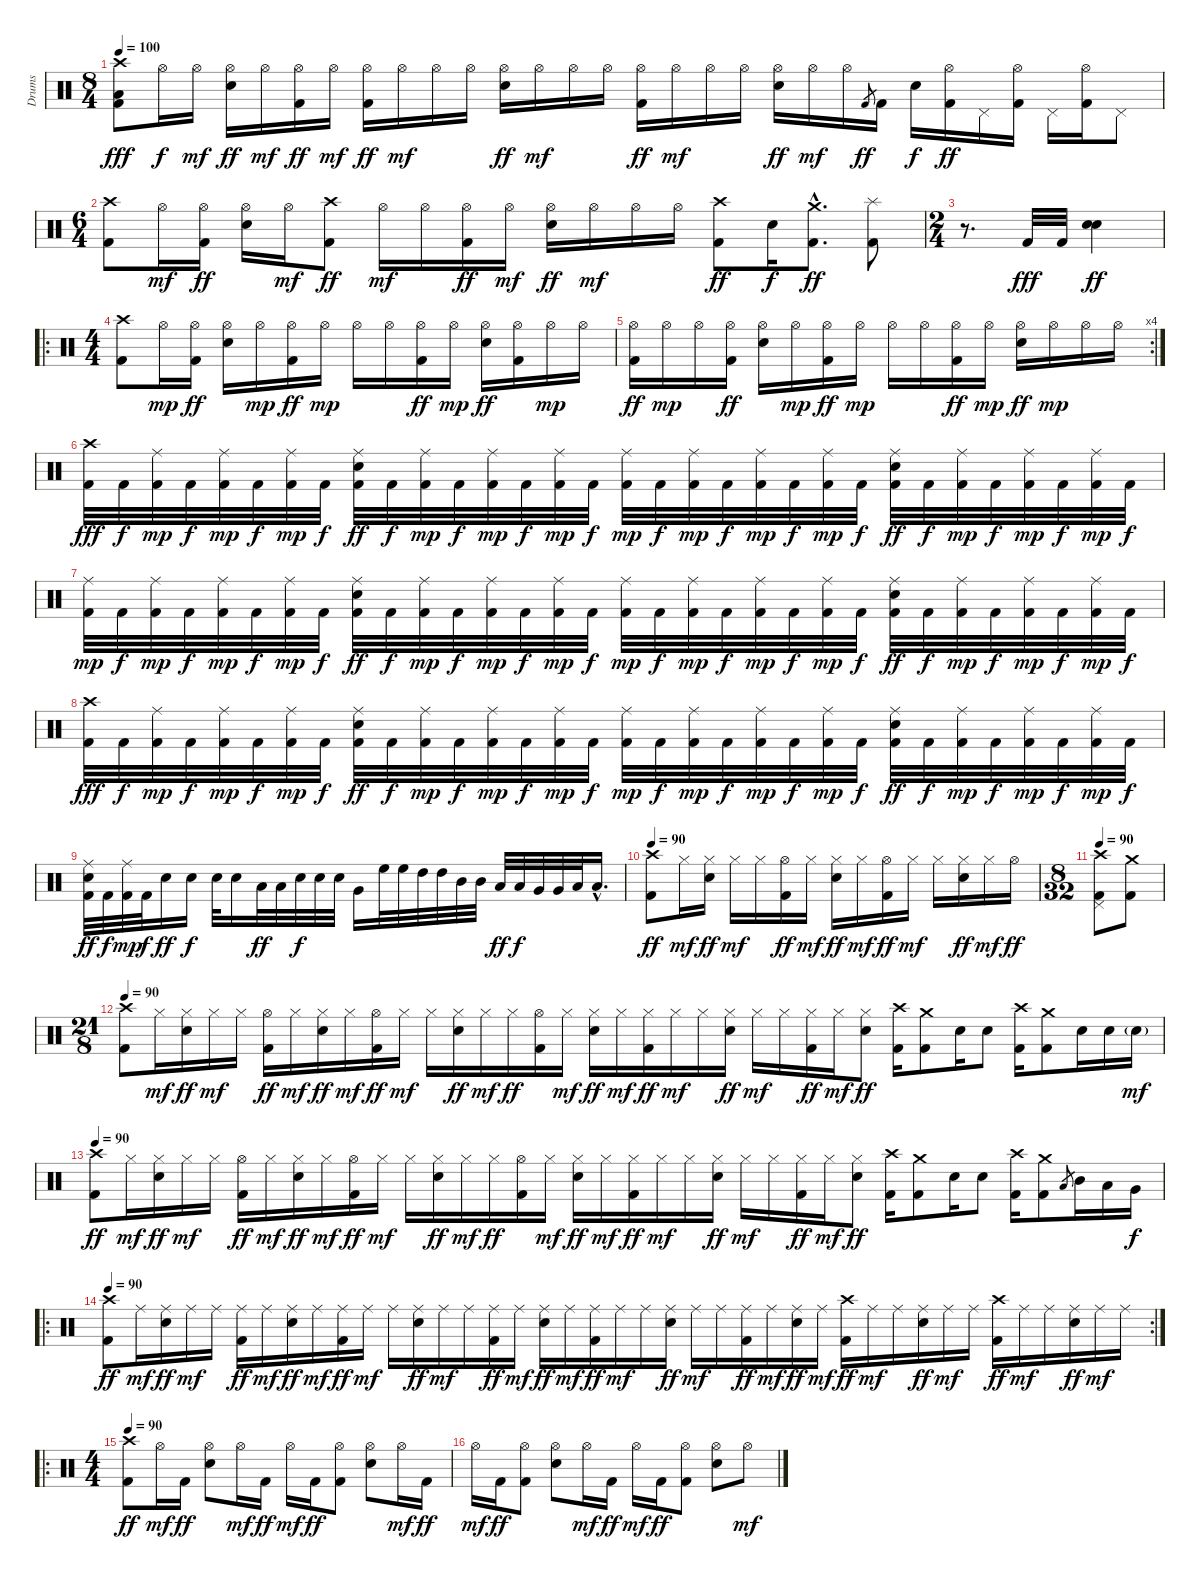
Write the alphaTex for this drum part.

\track ("Drums" "Drums") {instrument percussion}
\staff {score}
\articulation defaults
\ts (8 4)
\tempo 100
\clef neutral
\ks c
("Crash high (hit)" "Low Floor Tom (hit)" "Kick (hit) 2").8{dy fff} "Hi-Hat (open)".16{dy f} "Hi-Hat (open)".16{dy mf} ("Hi-Hat (open)" "Electric Snare (hit)").16{dy ff} "Hi-Hat (open)".16{dy mf} ("Hi-Hat (open)" "Kick (hit) 2").16{dy ff} "Hi-Hat (open)".16{dy mf} ("Hi-Hat (open)" "Kick (hit) 2").16{dy ff} "Hi-Hat (open)".16{dy mf} "Hi-Hat (open)".16 "Hi-Hat (open)".16 ("Hi-Hat (open)" "Electric Snare (hit)").16{dy ff} "Hi-Hat (open)".16{dy mf} "Hi-Hat (open)".16 "Hi-Hat (open)".16 ("Hi-Hat (open)" "Kick (hit) 2").16{dy ff} "Hi-Hat (open)".16{dy mf} "Hi-Hat (open)".16 "Hi-Hat (open)".16 ("Hi-Hat (open)" "Electric Snare (hit)").16{dy ff} "Hi-Hat (open)".16{dy mf} "Hi-Hat (open)".16 "Kick (hit) 2".8{gr dy ff} "Kick (hit) 2".16 "Electric Snare (hit)".16{dy f} ("Hi-Hat (open)" "Kick (hit) 2").16{dy ff} "Pedal Hi-Hat (hit)".16 ("Hi-Hat (open)" "Kick (hit) 2").16 "Pedal Hi-Hat (hit)".16 ("Hi-Hat (open)" "Kick (hit) 2").16 "Pedal Hi-Hat (hit)".8 |
\ts (6 4)
("Crash high (hit)" "Kick (hit) 2").8 "Hi-Hat (open)".16{dy mf} ("Hi-Hat (open)" "Kick (hit) 2").16{dy ff} ("Hi-Hat (open)" "Electric Snare (hit)").16 "Hi-Hat (open)".16{dy mf} ("Crash high (hit)" "Kick (hit) 2").8{dy ff} "Hi-Hat (open)".16{dy mf} "Hi-Hat (open)".16 ("Hi-Hat (open)" "Kick (hit) 2").16{dy ff} "Hi-Hat (open)".16{dy mf} ("Hi-Hat (open)" "Electric Snare (hit)").16{dy ff} "Hi-Hat (open)".16{dy mf} "Hi-Hat (open)".16 "Hi-Hat (open)".16 ("Crash high (hit)" "Kick (hit) 2").8{dy ff} "Electric Snare (hit)".16{dy f} ("Crash medium (hit)"{hac} "Kick (hit) 2"{hac}).8{d dy ff} ("Splash (hit)" "Kick (hit) 2").8 |
\ts (2 4)
r.8{d} "Kick (hit) 2".32{dy fff} "Kick (hit) 2".32 ("Electric Snare (hit)" "Metronome (bell)").4{dy ff} |
\ro
\ts (4 4)
("Crash high (hit)" "Kick (hit) 2").8 "Hi-Hat (open)".16{dy mp} ("Hi-Hat (open)" "Kick (hit) 2").16{dy ff} ("Hi-Hat (open)" "Electric Snare (hit)").16 "Hi-Hat (open)".16{dy mp} ("Hi-Hat (open)" "Kick (hit) 2").16{dy ff} "Hi-Hat (open)".16{dy mp} "Hi-Hat (open)".16 "Hi-Hat (open)".16 ("Hi-Hat (open)" "Kick (hit) 2").16{dy ff} "Hi-Hat (open)".16{dy mp} ("Hi-Hat (open)" "Electric Snare (hit)").16{dy ff} ("Hi-Hat (open)" "Kick (hit) 2").16 "Hi-Hat (open)".16{dy mp} "Hi-Hat (open)".16 |
\rc 4
("Hi-Hat (open)" "Kick (hit) 2").16{dy ff} "Hi-Hat (open)".16{dy mp} "Hi-Hat (open)".16 ("Hi-Hat (open)" "Kick (hit) 2").16{dy ff} ("Hi-Hat (open)" "Electric Snare (hit)").16 "Hi-Hat (open)".16{dy mp} ("Hi-Hat (open)" "Kick (hit) 2").16{dy ff} "Hi-Hat (open)".16{dy mp} "Hi-Hat (open)".16 "Hi-Hat (open)".16 ("Hi-Hat (open)" "Kick (hit) 2").16{dy ff} "Hi-Hat (open)".16{dy mp} ("Hi-Hat (open)" "Electric Snare (hit)").16{dy ff} "Hi-Hat (open)".16{dy mp} "Hi-Hat (open)".16 "Hi-Hat (open)".16 |
("Crash high (hit)" "Kick (hit) 2").32{dy fff} "Kick (hit) 2".32{dy f} ("Ride (middle)" "Kick (hit) 2").32{dy mp} "Kick (hit) 2".32{dy f} ("Ride (middle)" "Kick (hit) 2").32{dy mp} "Kick (hit) 2".32{dy f} ("Ride (middle)" "Kick (hit) 2").32{dy mp} "Kick (hit) 2".32{dy f} ("Ride (middle)" "Electric Snare (hit)" "Kick (hit) 2").32{dy ff} "Kick (hit) 2".32{dy f} ("Ride (middle)" "Kick (hit) 2").32{dy mp} "Kick (hit) 2".32{dy f} ("Ride (middle)" "Kick (hit) 2").32{dy mp} "Kick (hit) 2".32{dy f} ("Ride (middle)" "Kick (hit) 2").32{dy mp} "Kick (hit) 2".32{dy f} ("Ride (middle)" "Kick (hit) 2").32{dy mp} "Kick (hit) 2".32{dy f} ("Ride (middle)" "Kick (hit) 2").32{dy mp} "Kick (hit) 2".32{dy f} ("Ride (middle)" "Kick (hit) 2").32{dy mp} "Kick (hit) 2".32{dy f} ("Ride (middle)" "Kick (hit) 2").32{dy mp} "Kick (hit) 2".32{dy f} ("Ride (middle)" "Electric Snare (hit)" "Kick (hit) 2").32{dy ff} "Kick (hit) 2".32{dy f} ("Ride (middle)" "Kick (hit) 2").32{dy mp} "Kick (hit) 2".32{dy f} ("Ride (middle)" "Kick (hit) 2").32{dy mp} "Kick (hit) 2".32{dy f} ("Ride (middle)" "Kick (hit) 2").32{dy mp} "Kick (hit) 2".32{dy f} |
("Ride (middle)" "Kick (hit) 2").32{dy mp} "Kick (hit) 2".32{dy f} ("Ride (middle)" "Kick (hit) 2").32{dy mp} "Kick (hit) 2".32{dy f} ("Ride (middle)" "Kick (hit) 2").32{dy mp} "Kick (hit) 2".32{dy f} ("Ride (middle)" "Kick (hit) 2").32{dy mp} "Kick (hit) 2".32{dy f} ("Ride (middle)" "Electric Snare (hit)" "Kick (hit) 2").32{dy ff} "Kick (hit) 2".32{dy f} ("Ride (middle)" "Kick (hit) 2").32{dy mp} "Kick (hit) 2".32{dy f} ("Ride (middle)" "Kick (hit) 2").32{dy mp} "Kick (hit) 2".32{dy f} ("Ride (middle)" "Kick (hit) 2").32{dy mp} "Kick (hit) 2".32{dy f} ("Ride (middle)" "Kick (hit) 2").32{dy mp} "Kick (hit) 2".32{dy f} ("Ride (middle)" "Kick (hit) 2").32{dy mp} "Kick (hit) 2".32{dy f} ("Ride (middle)" "Kick (hit) 2").32{dy mp} "Kick (hit) 2".32{dy f} ("Ride (middle)" "Kick (hit) 2").32{dy mp} "Kick (hit) 2".32{dy f} ("Ride (middle)" "Electric Snare (hit)" "Kick (hit) 2").32{dy ff} "Kick (hit) 2".32{dy f} ("Ride (middle)" "Kick (hit) 2").32{dy mp} "Kick (hit) 2".32{dy f} ("Ride (middle)" "Kick (hit) 2").32{dy mp} "Kick (hit) 2".32{dy f} ("Ride (middle)" "Kick (hit) 2").32{dy mp} "Kick (hit) 2".32{dy f} |
("Crash high (hit)" "Kick (hit) 2").32{dy fff} "Kick (hit) 2".32{dy f} ("Ride (middle)" "Kick (hit) 2").32{dy mp} "Kick (hit) 2".32{dy f} ("Ride (middle)" "Kick (hit) 2").32{dy mp} "Kick (hit) 2".32{dy f} ("Ride (middle)" "Kick (hit) 2").32{dy mp} "Kick (hit) 2".32{dy f} ("Ride (middle)" "Electric Snare (hit)" "Kick (hit) 2").32{dy ff} "Kick (hit) 2".32{dy f} ("Ride (middle)" "Kick (hit) 2").32{dy mp} "Kick (hit) 2".32{dy f} ("Ride (middle)" "Kick (hit) 2").32{dy mp} "Kick (hit) 2".32{dy f} ("Ride (middle)" "Kick (hit) 2").32{dy mp} "Kick (hit) 2".32{dy f} ("Ride (middle)" "Kick (hit) 2").32{dy mp} "Kick (hit) 2".32{dy f} ("Ride (middle)" "Kick (hit) 2").32{dy mp} "Kick (hit) 2".32{dy f} ("Ride (middle)" "Kick (hit) 2").32{dy mp} "Kick (hit) 2".32{dy f} ("Ride (middle)" "Kick (hit) 2").32{dy mp} "Kick (hit) 2".32{dy f} ("Ride (middle)" "Electric Snare (hit)" "Kick (hit) 2").32{dy ff} "Kick (hit) 2".32{dy f} ("Ride (middle)" "Kick (hit) 2").32{dy mp} "Kick (hit) 2".32{dy f} ("Ride (middle)" "Kick (hit) 2").32{dy mp} "Kick (hit) 2".32{dy f} ("Ride (middle)" "Kick (hit) 2").32{dy mp} "Kick (hit) 2".32{dy f} |
("Ride (middle)" "Electric Snare (hit)" "Kick (hit) 2").32{dy ff} "Kick (hit) 2".32{dy f} ("Ride (middle)" "Kick (hit) 2").32{dy mp} "Kick (hit) 2".32{dy f} "Electric Snare (hit)".16{dy ff} "Electric Snare (hit)".16{dy f} "Electric Snare (hit)".32 "Electric Snare (hit)".16 "Low Tom (hit)".32{dy ff} "Low Tom (hit)".32 "Electric Snare (hit)".32{dy f} "Electric Snare (hit)".32 "Electric Snare (hit)".32 "Very Low Tom (hit)".16 "High Floor Tom (hit)".32 "High Floor Tom (hit)".32 "High Tom (hit)".32 "High Tom (hit)".32 "Mid Tom (hit)".32 "Mid Tom (hit)".32 "Low Tom (hit)".32{dy ff} "Low Tom (hit)".32{dy f} "Very Low Tom (hit)".32 "Very Low Tom (hit)".32 "Low Floor Tom (hit)".32 "Low Floor Tom (hit)"{hac}.16{d} |
\tempo 90
("Crash high (hit)" "Kick (hit) 2").8{dy ff} "Hi-Hat (closed)".16{dy mf} ("Hi-Hat (closed)" "Electric Snare (hit)").16{dy ff} "Hi-Hat (closed)".16{dy mf} "Hi-Hat (closed)".16 ("Hi-Hat (open)" "Kick (hit) 2").16{dy ff} "Hi-Hat (closed)".16{dy mf} ("Hi-Hat (closed)" "Electric Snare (hit)").16{dy ff} "Hi-Hat (closed)".16{dy mf} ("Hi-Hat (open)" "Kick (hit) 2").16{dy ff} "Hi-Hat (closed)".16{dy mf} "Hi-Hat (closed)".16 ("Hi-Hat (closed)" "Electric Snare (hit)").16{dy ff} "Hi-Hat (closed)".16{dy mf} "Hi-Hat (open)".16{dy ff} |
\ts (8 32)
\tempo 90
("Crash high (hit)" "Pedal Hi-Hat (hit)" "Kick (hit) 2").8 ("Crash medium (hit)" "Kick (hit) 2").8 |
\ts (21 8)
\tempo 90
("Crash high (hit)" "Kick (hit) 2").8 "Hi-Hat (closed)".16{dy mf} ("Hi-Hat (closed)" "Electric Snare (hit)").16{dy ff} "Hi-Hat (closed)".16{dy mf} "Hi-Hat (closed)".16 ("Hi-Hat (open)" "Kick (hit) 2").16{dy ff} "Hi-Hat (closed)".16{dy mf} ("Hi-Hat (closed)" "Electric Snare (hit)").16{dy ff} "Hi-Hat (closed)".16{dy mf} ("Hi-Hat (open)" "Kick (hit) 2").16{dy ff} "Hi-Hat (closed)".16{dy mf} "Hi-Hat (closed)".16 ("Hi-Hat (closed)" "Electric Snare (hit)").16{dy ff} "Hi-Hat (closed)".16{dy mf} "Hi-Hat (closed)".16{dy ff} ("Hi-Hat (open)" "Kick (hit) 2").16 "Hi-Hat (closed)".16{dy mf} ("Hi-Hat (closed)" "Electric Snare (hit)").16{dy ff} "Hi-Hat (closed)".16{dy mf} ("Hi-Hat (closed)" "Kick (hit) 2").16{dy ff} "Hi-Hat (closed)".16{dy mf} "Hi-Hat (closed)".16 ("Hi-Hat (closed)" "Electric Snare (hit)").16{dy ff} "Hi-Hat (closed)".16{dy mf} "Hi-Hat (closed)".16 ("Hi-Hat (closed)" "Kick (hit) 2").16{dy ff} "Hi-Hat (closed)".16{dy mf} ("Hi-Hat (closed)" "Electric Snare (hit)").8{dy ff} ("Crash high (hit)" "Kick (hit) 2").16 ("Crash medium (hit)" "Kick (hit) 2").8 "Electric Snare (hit)".16 "Electric Snare (hit)".8 ("Crash high (hit)" "Kick (hit) 2").16 ("Crash medium (hit)" "Kick (hit) 2").8 "Electric Snare (hit)".16 "Electric Snare (hit)".16 "Electric Snare (hit)"{g}.16{dy mf} |
\tempo 90
("Crash high (hit)" "Kick (hit) 2").8{dy ff} "Hi-Hat (closed)".16{dy mf} ("Hi-Hat (closed)" "Electric Snare (hit)").16{dy ff} "Hi-Hat (closed)".16{dy mf} "Hi-Hat (closed)".16 ("Hi-Hat (open)" "Kick (hit) 2").16{dy ff} "Hi-Hat (closed)".16{dy mf} ("Hi-Hat (closed)" "Electric Snare (hit)").16{dy ff} "Hi-Hat (closed)".16{dy mf} ("Hi-Hat (open)" "Kick (hit) 2").16{dy ff} "Hi-Hat (closed)".16{dy mf} "Hi-Hat (closed)".16 ("Hi-Hat (closed)" "Electric Snare (hit)").16{dy ff} "Hi-Hat (closed)".16{dy mf} "Hi-Hat (closed)".16{dy ff} ("Hi-Hat (open)" "Kick (hit) 2").16 "Hi-Hat (closed)".16{dy mf} ("Hi-Hat (closed)" "Electric Snare (hit)").16{dy ff} "Hi-Hat (closed)".16{dy mf} ("Hi-Hat (closed)" "Kick (hit) 2").16{dy ff} "Hi-Hat (closed)".16{dy mf} "Hi-Hat (closed)".16 ("Hi-Hat (closed)" "Electric Snare (hit)").16{dy ff} "Hi-Hat (closed)".16{dy mf} "Hi-Hat (closed)".16 ("Hi-Hat (closed)" "Kick (hit) 2").16{dy ff} "Hi-Hat (closed)".16{dy mf} ("Hi-Hat (closed)" "Electric Snare (hit)").8{dy ff} ("Crash high (hit)" "Kick (hit) 2").16 ("Crash medium (hit)" "Kick (hit) 2").8 "Electric Snare (hit)".16 "Electric Snare (hit)".8 ("Crash high (hit)" "Kick (hit) 2").16 ("Crash medium (hit)" "Kick (hit) 2").8 "Low Tom (hit)".8{gr} "Mid Tom (hit)".16 "Low Tom (hit)".16 "Very Low Tom (hit)".16{dy f} |
\ro
\rc 2
\tempo 90
("Crash high (hit)" "Kick (hit) 2").8{dy ff} "Ride (middle)".16{dy mf} ("Ride (middle)" "Electric Snare (hit)").16{dy ff} "Ride (middle)".16{dy mf} "Ride (middle)".16 ("Ride (middle)" "Kick (hit) 2").16{dy ff} "Ride (middle)".16{dy mf} ("Ride (middle)" "Electric Snare (hit)").16{dy ff} "Ride (middle)".16{dy mf} ("Ride (middle)" "Kick (hit) 2").16{dy ff} "Ride (middle)".16{dy mf} "Ride (middle)".16 ("Ride (middle)" "Electric Snare (hit)").16{dy ff} "Ride (middle)".16{dy mf} "Ride (middle)".16 ("Ride (middle)" "Kick (hit) 2").16{dy ff} "Ride (middle)".16{dy mf} ("Ride (middle)" "Electric Snare (hit)").16{dy ff} "Ride (middle)".16{dy mf} ("Ride (middle)" "Kick (hit) 2").16{dy ff} "Ride (middle)".16{dy mf} "Ride (middle)".16 ("Ride (middle)" "Electric Snare (hit)").16{dy ff} "Ride (middle)".16{dy mf} "Ride (middle)".16 ("Ride (middle)" "Kick (hit) 2").16{dy ff} "Ride (middle)".16{dy mf} ("Ride (middle)" "Electric Snare (hit)").16{dy ff} "Ride (middle)".16{dy mf} ("Crash high (hit)" "Kick (hit) 2").16{dy ff} "Ride (middle)".16{dy mf} "Ride (middle)".16 ("Ride (middle)" "Electric Snare (hit)").16{dy ff} "Ride (middle)".16{dy mf} "Ride (middle)".16 ("Crash high (hit)" "Kick (hit) 2").16{dy ff} "Ride (middle)".16{dy mf} "Ride (middle)".16 ("Ride (middle)" "Electric Snare (hit)").16{dy ff} "Ride (middle)".16{dy mf} "Ride (middle)".16 |
\ro
\ts (4 4)
\tempo 90
("Crash high (hit)" "Kick (hit) 2").8{dy ff} "Hi-Hat (open)".16{dy mf} "Kick (hit) 2".16{dy ff} ("Hi-Hat (open)" "Electric Snare (hit)").8 "Hi-Hat (open)".16{dy mf} "Kick (hit) 2".16{dy ff} "Hi-Hat (open)".16{dy mf} "Kick (hit) 2".16{dy ff} ("Hi-Hat (open)" "Kick (hit) 2").8 ("Hi-Hat (open)" "Electric Snare (hit)").8 "Hi-Hat (open)".16{dy mf} "Kick (hit) 2".16{dy ff} |
"Hi-Hat (open)".16{dy mf} "Kick (hit) 2".16{dy ff} ("Hi-Hat (open)" "Kick (hit) 2").8 ("Hi-Hat (open)" "Electric Snare (hit)").8 "Hi-Hat (open)".16{dy mf} "Kick (hit) 2".16{dy ff} "Hi-Hat (open)".16{dy mf} "Kick (hit) 2".16{dy ff} ("Hi-Hat (open)" "Kick (hit) 2").8 ("Hi-Hat (open)" "Electric Snare (hit)").8 "Hi-Hat (open)".8{dy mf}
